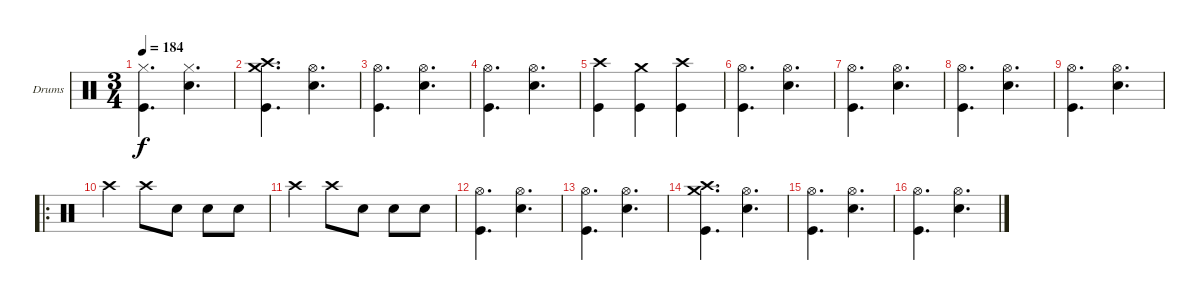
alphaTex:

\bracketExtendMode groupsimilarinstruments
\firstSystemTrackNameOrientation horizontal
\otherSystemsTrackNameOrientation horizontal
\track ("Drumkit" "Drums") {instrument percussion}
\staff {score}
\articulation defaults
\ts (3 4)
\tempo 184
\clef neutral
\ks c
("Hi-Hat (closed)" "Kick (hit)").4{d dy f} ("Snare (hit) 2" "Hi-Hat (closed)").4{d} |
("Crash high (hit)" "Crash medium (hit)" "Kick (hit)").4{d} ("Hi-Hat (open)" "Snare (hit) 2").4{d} |
("Hi-Hat (open)" "Kick (hit)").4{d} ("Hi-Hat (open)" "Snare (hit) 2").4{d} |
("Hi-Hat (open)" "Kick (hit)").4{d} ("Hi-Hat (open)" "Snare (hit) 2").4{d} |
("Crash high (hit)" "Kick (hit)").4 ("Crash medium (hit)" "Kick (hit)").4 ("Crash high (hit)" "Kick (hit)").4 |
("Hi-Hat (open)" "Kick (hit)").4{d} ("Hi-Hat (open)" "Snare (hit) 2").4{d} |
("Hi-Hat (open)" "Kick (hit)").4{d} ("Hi-Hat (open)" "Snare (hit) 2").4{d} |
("Hi-Hat (open)" "Kick (hit)").4{d} ("Hi-Hat (open)" "Snare (hit) 2").4{d} |
("Hi-Hat (open)" "Kick (hit)").4{d} ("Hi-Hat (open)" "Snare (hit) 2").4{d} |
\ro "Crash high (hit)".4 "Crash high (hit)".8 "Snare (hit) 2".8 "Snare (hit) 2".8 "Snare (hit) 2".8
|
"Crash high (hit)".4 "Crash high (hit)".8 "Snare (hit) 2".8 "Snare (hit) 2".8 "Snare (hit) 2".8 |
("Hi-Hat (open)" "Kick (hit)").4{d} ("Hi-Hat (open)" "Snare (hit) 2").4{d} |
("Hi-Hat (open)" "Kick (hit)").4{d} ("Hi-Hat (open)" "Snare (hit) 2").4{d} |
("Crash high (hit)" "Crash medium (hit)" "Kick (hit)").4{d} ("Hi-Hat (open)" "Snare (hit) 2").4{d} |
("Hi-Hat (open)" "Kick (hit)").4{d} ("Hi-Hat (open)" "Snare (hit) 2").4{d} |
("Hi-Hat (open)" "Kick (hit)").4{d} ("Hi-Hat (open)" "Snare (hit) 2").4{d}
